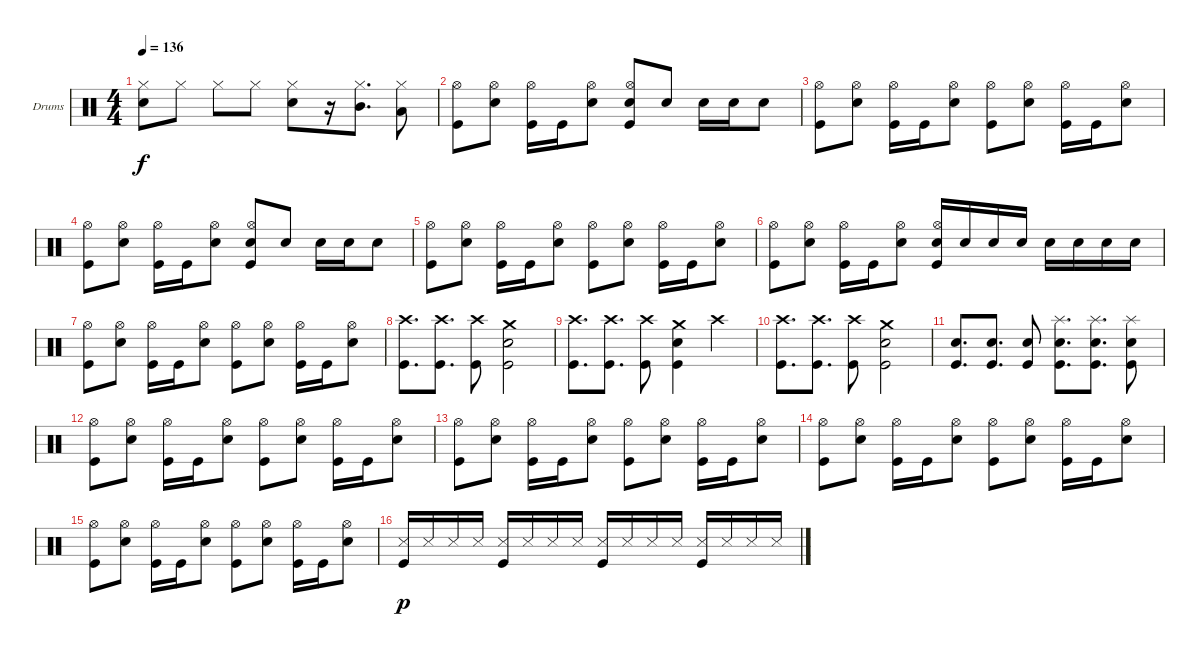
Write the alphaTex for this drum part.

\defaultSystemsLayout 4
\bracketExtendMode groupsimilarinstruments
\firstSystemTrackNameOrientation horizontal
\otherSystemsTrackNameOrientation horizontal
\track ("Lars Ulrich (Drums)" "Drums") {instrument percussion}
\staff {score}
\articulation defaults
\ts (4 4)
\tempo 136
\clef neutral
\ks c
("Hi-Hat (closed)" "Snare (hit) 2").8{dy f} "Hi-Hat (closed)".8 "Hi-Hat (closed)".8 "Hi-Hat (closed)".8 ("Hi-Hat (closed)" "Snare (hit) 2").8 r.16 ("Hi-Hat (closed)" "Mid Tom (hit)").8{d} ("Hi-Hat (closed)" "Low Tom (hit)").8 |
("Hi-Hat (open)" "Kick (hit)").8 ("Hi-Hat (open)" "Snare (hit) 2").8 ("Hi-Hat (open)" "Kick (hit)").16 "Kick (hit)".16 ("Hi-Hat (open)" "Snare (hit) 2").8 ("Hi-Hat (open)" "Snare (hit) 2" "Kick (hit)").8 "Snare (hit) 2".8 "Snare (hit) 2".16 "Snare (hit) 2".16 "Snare (hit) 2".8 |
("Hi-Hat (open)" "Kick (hit)").8 ("Hi-Hat (open)" "Snare (hit) 2").8 ("Hi-Hat (open)" "Kick (hit)").16 "Kick (hit)".16 ("Hi-Hat (open)" "Snare (hit) 2").8 ("Hi-Hat (open)" "Kick (hit)").8 ("Hi-Hat (open)" "Snare (hit) 2").8 ("Hi-Hat (open)" "Kick (hit)").16 "Kick (hit)".16 ("Hi-Hat (open)" "Snare (hit) 2").8 |
("Hi-Hat (open)" "Kick (hit)").8 ("Hi-Hat (open)" "Snare (hit) 2").8 ("Hi-Hat (open)" "Kick (hit)").16 "Kick (hit)".16 ("Hi-Hat (open)" "Snare (hit) 2").8 ("Hi-Hat (open)" "Snare (hit) 2" "Kick (hit)").8 "Snare (hit) 2".8 "Snare (hit) 2".16 "Snare (hit) 2".16 "Snare (hit) 2".8 |
("Hi-Hat (open)" "Kick (hit)").8 ("Hi-Hat (open)" "Snare (hit) 2").8 ("Hi-Hat (open)" "Kick (hit)").16 "Kick (hit)".16 ("Hi-Hat (open)" "Snare (hit) 2").8 ("Hi-Hat (open)" "Kick (hit)").8 ("Hi-Hat (open)" "Snare (hit) 2").8 ("Hi-Hat (open)" "Kick (hit)").16 "Kick (hit)".16 ("Hi-Hat (open)" "Snare (hit) 2").8 |
("Hi-Hat (open)" "Kick (hit)").8 ("Hi-Hat (open)" "Snare (hit) 2").8 ("Hi-Hat (open)" "Kick (hit)").16 "Kick (hit)".16 ("Hi-Hat (open)" "Snare (hit) 2").8 ("Hi-Hat (open)" "Snare (hit) 2" "Kick (hit)").16 "Snare (hit) 2".16 "Snare (hit) 2".16 "Snare (hit) 2".16 "Snare (hit) 2".16 "Snare (hit) 2".16 "Snare (hit) 2".16 "Snare (hit) 2".16 |
("Hi-Hat (open)" "Kick (hit)").8 ("Hi-Hat (open)" "Snare (hit) 2").8 ("Hi-Hat (open)" "Kick (hit)").16 "Kick (hit)".16 ("Hi-Hat (open)" "Snare (hit) 2").8 ("Hi-Hat (open)" "Kick (hit)").8 ("Hi-Hat (open)" "Snare (hit) 2").8 ("Hi-Hat (open)" "Kick (hit)").16 "Kick (hit)".16 ("Hi-Hat (open)" "Snare (hit) 2").8 |
("Crash high (hit)" "Kick (hit)").8{d} ("Crash high (hit)" "Kick (hit)").8{d} ("Crash high (hit)" "Kick (hit)").8 ("Crash medium (hit)" "Snare (hit) 2" "Kick (hit)").2 |
("Crash high (hit)" "Kick (hit)").8{d} ("Crash high (hit)" "Kick (hit)").8{d} ("Crash high (hit)" "Kick (hit)").8 ("Crash medium (hit)" "Snare (hit) 2" "Kick (hit)").4 "Crash high (hit)".4 |
("Crash high (hit)" "Kick (hit)").8{d} ("Crash high (hit)" "Kick (hit)").8{d} ("Crash high (hit)" "Kick (hit)").8 ("Crash medium (hit)" "Snare (hit) 2" "Kick (hit)").2 |
("Snare (hit) 2" "Kick (hit)").8{d} ("Snare (hit) 2" "Kick (hit)").8{d} ("Snare (hit) 2" "Kick (hit)").8 ("Splash (hit)" "Snare (hit) 2" "Kick (hit)").8{d} ("Splash (hit)" "Snare (hit) 2" "Kick (hit)").8{d} ("Splash (hit)" "Snare (hit) 2" "Kick (hit)").8 |
("Hi-Hat (open)" "Kick (hit)").8 ("Hi-Hat (open)" "Snare (hit) 2").8 ("Hi-Hat (open)" "Kick (hit)").16 "Kick (hit)".16 ("Hi-Hat (open)" "Snare (hit) 2").8 ("Hi-Hat (open)" "Kick (hit)").8 ("Hi-Hat (open)" "Snare (hit) 2").8 ("Hi-Hat (open)" "Kick (hit)").16 "Kick (hit)".16 ("Hi-Hat (open)" "Snare (hit) 2").8 |
("Hi-Hat (open)" "Kick (hit)").8 ("Hi-Hat (open)" "Snare (hit) 2").8 ("Hi-Hat (open)" "Kick (hit)").16 "Kick (hit)".16 ("Hi-Hat (open)" "Snare (hit) 2").8 ("Hi-Hat (open)" "Kick (hit)").8 ("Hi-Hat (open)" "Snare (hit) 2").8 ("Hi-Hat (open)" "Kick (hit)").16 "Kick (hit)".16 ("Hi-Hat (open)" "Snare (hit) 2").8 |
("Hi-Hat (open)" "Kick (hit)").8 ("Hi-Hat (open)" "Snare (hit) 2").8 ("Hi-Hat (open)" "Kick (hit)").16 "Kick (hit)".16 ("Hi-Hat (open)" "Snare (hit) 2").8 ("Hi-Hat (open)" "Kick (hit)").8 ("Hi-Hat (open)" "Snare (hit) 2").8 ("Hi-Hat (open)" "Kick (hit)").16 "Kick (hit)".16 ("Hi-Hat (open)" "Snare (hit) 2").8 |
("Hi-Hat (open)" "Kick (hit)").8 ("Hi-Hat (open)" "Snare (hit) 2").8 ("Hi-Hat (open)" "Kick (hit)").16 "Kick (hit)".16 ("Hi-Hat (open)" "Snare (hit) 2").8 ("Hi-Hat (open)" "Kick (hit)").8 ("Hi-Hat (open)" "Snare (hit) 2").8 ("Hi-Hat (open)" "Kick (hit)").16 "Kick (hit)".16 ("Hi-Hat (open)" "Snare (hit) 2").8 |
("Snare (side stick) 3" "Kick (hit)").16{dy p} "Snare (side stick) 3".16 "Snare (side stick) 3".16 "Snare (side stick) 3".16 ("Snare (side stick) 3" "Kick (hit)").16 "Snare (side stick) 3".16 "Snare (side stick) 3".16 "Snare (side stick) 3".16 ("Snare (side stick) 3" "Kick (hit)").16 "Snare (side stick) 3".16 "Snare (side stick) 3".16 "Snare (side stick) 3".16 ("Snare (side stick) 3" "Kick (hit)").16 "Snare (side stick) 3".16 "Snare (side stick) 3".16 "Snare (side stick) 3".16
